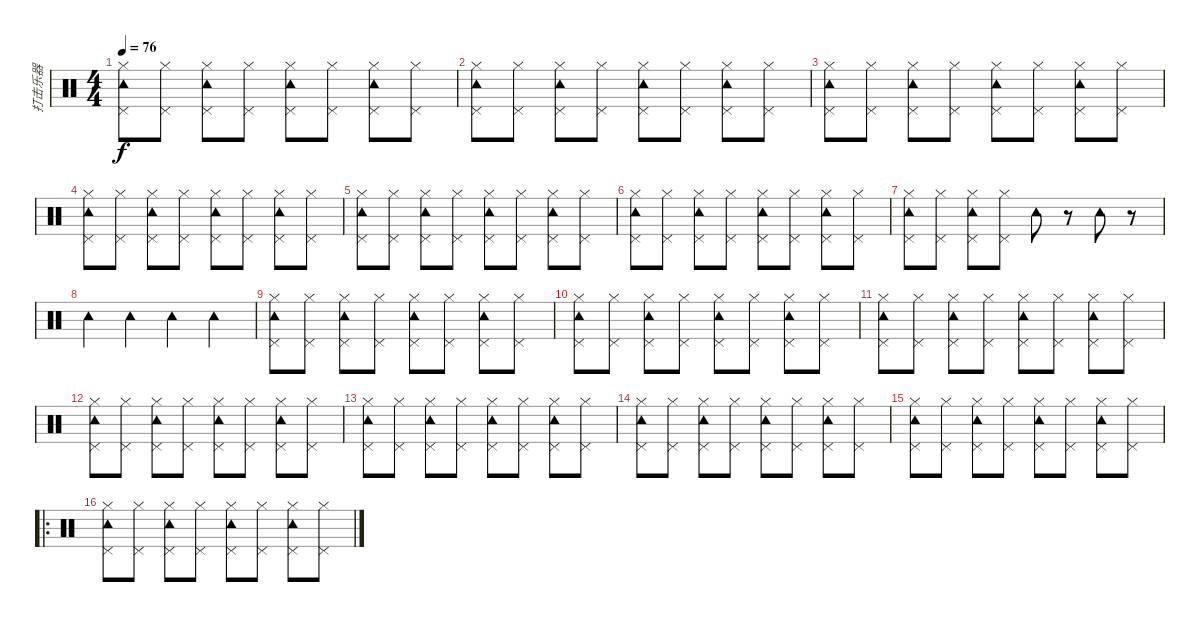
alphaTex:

\track ("打击乐器" "打击乐器") {instrument percussion}
\staff {score}
\articulation defaults
\ts (4 4)
\tempo 76
\clef neutral
\ks c
("Tambourine (hit)" "Pedal Hi-Hat (hit)" "Hi-Hat (closed)").8{dy f} ("Pedal Hi-Hat (hit)" "Hi-Hat (closed)").8 ("Tambourine (hit)" "Pedal Hi-Hat (hit)" "Hi-Hat (closed)").8 ("Pedal Hi-Hat (hit)" "Hi-Hat (closed)").8 ("Tambourine (hit)" "Pedal Hi-Hat (hit)" "Hi-Hat (closed)").8 ("Pedal Hi-Hat (hit)" "Hi-Hat (closed)").8 ("Tambourine (hit)" "Pedal Hi-Hat (hit)" "Hi-Hat (closed)").8 ("Pedal Hi-Hat (hit)" "Hi-Hat (closed)").8 |
("Tambourine (hit)" "Pedal Hi-Hat (hit)" "Hi-Hat (closed)").8 ("Pedal Hi-Hat (hit)" "Hi-Hat (closed)").8 ("Tambourine (hit)" "Pedal Hi-Hat (hit)" "Hi-Hat (closed)").8 ("Pedal Hi-Hat (hit)" "Hi-Hat (closed)").8 ("Tambourine (hit)" "Pedal Hi-Hat (hit)" "Hi-Hat (closed)").8 ("Pedal Hi-Hat (hit)" "Hi-Hat (closed)").8 ("Tambourine (hit)" "Pedal Hi-Hat (hit)" "Hi-Hat (closed)").8 ("Pedal Hi-Hat (hit)" "Hi-Hat (closed)").8 |
("Tambourine (hit)" "Pedal Hi-Hat (hit)" "Hi-Hat (closed)").8 ("Pedal Hi-Hat (hit)" "Hi-Hat (closed)").8 ("Tambourine (hit)" "Pedal Hi-Hat (hit)" "Hi-Hat (closed)").8 ("Pedal Hi-Hat (hit)" "Hi-Hat (closed)").8 ("Tambourine (hit)" "Pedal Hi-Hat (hit)" "Hi-Hat (closed)").8 ("Pedal Hi-Hat (hit)" "Hi-Hat (closed)").8 ("Tambourine (hit)" "Pedal Hi-Hat (hit)" "Hi-Hat (closed)").8 ("Pedal Hi-Hat (hit)" "Hi-Hat (closed)").8 |
("Tambourine (hit)" "Pedal Hi-Hat (hit)" "Hi-Hat (closed)").8 ("Pedal Hi-Hat (hit)" "Hi-Hat (closed)").8 ("Tambourine (hit)" "Pedal Hi-Hat (hit)" "Hi-Hat (closed)").8 ("Pedal Hi-Hat (hit)" "Hi-Hat (closed)").8 ("Tambourine (hit)" "Pedal Hi-Hat (hit)" "Hi-Hat (closed)").8 ("Pedal Hi-Hat (hit)" "Hi-Hat (closed)").8 ("Tambourine (hit)" "Pedal Hi-Hat (hit)" "Hi-Hat (closed)").8 ("Pedal Hi-Hat (hit)" "Hi-Hat (closed)").8 |
("Tambourine (hit)" "Pedal Hi-Hat (hit)" "Hi-Hat (closed)").8 ("Pedal Hi-Hat (hit)" "Hi-Hat (closed)").8 ("Tambourine (hit)" "Pedal Hi-Hat (hit)" "Hi-Hat (closed)").8 ("Pedal Hi-Hat (hit)" "Hi-Hat (closed)").8 ("Tambourine (hit)" "Pedal Hi-Hat (hit)" "Hi-Hat (closed)").8 ("Pedal Hi-Hat (hit)" "Hi-Hat (closed)").8 ("Tambourine (hit)" "Pedal Hi-Hat (hit)" "Hi-Hat (closed)").8 ("Pedal Hi-Hat (hit)" "Hi-Hat (closed)").8 |
("Tambourine (hit)" "Pedal Hi-Hat (hit)" "Hi-Hat (closed)").8 ("Pedal Hi-Hat (hit)" "Hi-Hat (closed)").8 ("Tambourine (hit)" "Pedal Hi-Hat (hit)" "Hi-Hat (closed)").8 ("Pedal Hi-Hat (hit)" "Hi-Hat (closed)").8 ("Tambourine (hit)" "Pedal Hi-Hat (hit)" "Hi-Hat (closed)").8 ("Pedal Hi-Hat (hit)" "Hi-Hat (closed)").8 ("Tambourine (hit)" "Pedal Hi-Hat (hit)" "Hi-Hat (closed)").8 ("Pedal Hi-Hat (hit)" "Hi-Hat (closed)").8 |
("Tambourine (hit)" "Pedal Hi-Hat (hit)" "Hi-Hat (closed)").8 ("Pedal Hi-Hat (hit)" "Hi-Hat (closed)").8 ("Tambourine (hit)" "Pedal Hi-Hat (hit)" "Hi-Hat (closed)").8 ("Pedal Hi-Hat (hit)" "Hi-Hat (closed)").8 "Tambourine (hit)".8 r.8 "Tambourine (hit)".8 r.8 |
"Tambourine (hit)".4 "Tambourine (hit)".4 "Tambourine (hit)".4 "Tambourine (hit)".4 |
("Tambourine (hit)" "Pedal Hi-Hat (hit)" "Hi-Hat (closed)").8 ("Pedal Hi-Hat (hit)" "Hi-Hat (closed)").8 ("Tambourine (hit)" "Pedal Hi-Hat (hit)" "Hi-Hat (closed)").8 ("Pedal Hi-Hat (hit)" "Hi-Hat (closed)").8 ("Tambourine (hit)" "Pedal Hi-Hat (hit)" "Hi-Hat (closed)").8 ("Pedal Hi-Hat (hit)" "Hi-Hat (closed)").8 ("Tambourine (hit)" "Pedal Hi-Hat (hit)" "Hi-Hat (closed)").8 ("Pedal Hi-Hat (hit)" "Hi-Hat (closed)").8 |
("Tambourine (hit)" "Pedal Hi-Hat (hit)" "Hi-Hat (closed)").8 ("Pedal Hi-Hat (hit)" "Hi-Hat (closed)").8 ("Tambourine (hit)" "Pedal Hi-Hat (hit)" "Hi-Hat (closed)").8 ("Pedal Hi-Hat (hit)" "Hi-Hat (closed)").8 ("Tambourine (hit)" "Pedal Hi-Hat (hit)" "Hi-Hat (closed)").8 ("Pedal Hi-Hat (hit)" "Hi-Hat (closed)").8 ("Tambourine (hit)" "Pedal Hi-Hat (hit)" "Hi-Hat (closed)").8 ("Pedal Hi-Hat (hit)" "Hi-Hat (closed)").8 |
("Tambourine (hit)" "Pedal Hi-Hat (hit)" "Hi-Hat (closed)").8 ("Pedal Hi-Hat (hit)" "Hi-Hat (closed)").8 ("Tambourine (hit)" "Pedal Hi-Hat (hit)" "Hi-Hat (closed)").8 ("Pedal Hi-Hat (hit)" "Hi-Hat (closed)").8 ("Tambourine (hit)" "Pedal Hi-Hat (hit)" "Hi-Hat (closed)").8 ("Pedal Hi-Hat (hit)" "Hi-Hat (closed)").8 ("Tambourine (hit)" "Pedal Hi-Hat (hit)" "Hi-Hat (closed)").8 ("Pedal Hi-Hat (hit)" "Hi-Hat (closed)").8 |
("Tambourine (hit)" "Pedal Hi-Hat (hit)" "Hi-Hat (closed)").8 ("Pedal Hi-Hat (hit)" "Hi-Hat (closed)").8 ("Tambourine (hit)" "Pedal Hi-Hat (hit)" "Hi-Hat (closed)").8 ("Pedal Hi-Hat (hit)" "Hi-Hat (closed)").8 ("Tambourine (hit)" "Pedal Hi-Hat (hit)" "Hi-Hat (closed)").8 ("Pedal Hi-Hat (hit)" "Hi-Hat (closed)").8 ("Tambourine (hit)" "Pedal Hi-Hat (hit)" "Hi-Hat (closed)").8 ("Pedal Hi-Hat (hit)" "Hi-Hat (closed)").8 |
("Tambourine (hit)" "Pedal Hi-Hat (hit)" "Hi-Hat (closed)").8 ("Pedal Hi-Hat (hit)" "Hi-Hat (closed)").8 ("Tambourine (hit)" "Pedal Hi-Hat (hit)" "Hi-Hat (closed)").8 ("Pedal Hi-Hat (hit)" "Hi-Hat (closed)").8 ("Tambourine (hit)" "Pedal Hi-Hat (hit)" "Hi-Hat (closed)").8 ("Pedal Hi-Hat (hit)" "Hi-Hat (closed)").8 ("Tambourine (hit)" "Pedal Hi-Hat (hit)" "Hi-Hat (closed)").8 ("Pedal Hi-Hat (hit)" "Hi-Hat (closed)").8 |
("Tambourine (hit)" "Pedal Hi-Hat (hit)" "Hi-Hat (closed)").8 ("Pedal Hi-Hat (hit)" "Hi-Hat (closed)").8 ("Tambourine (hit)" "Pedal Hi-Hat (hit)" "Hi-Hat (closed)").8 ("Pedal Hi-Hat (hit)" "Hi-Hat (closed)").8 ("Tambourine (hit)" "Pedal Hi-Hat (hit)" "Hi-Hat (closed)").8 ("Pedal Hi-Hat (hit)" "Hi-Hat (closed)").8 ("Tambourine (hit)" "Pedal Hi-Hat (hit)" "Hi-Hat (closed)").8 ("Pedal Hi-Hat (hit)" "Hi-Hat (closed)").8 |
("Tambourine (hit)" "Pedal Hi-Hat (hit)" "Hi-Hat (closed)").8 ("Pedal Hi-Hat (hit)" "Hi-Hat (closed)").8 ("Tambourine (hit)" "Pedal Hi-Hat (hit)" "Hi-Hat (closed)").8 ("Pedal Hi-Hat (hit)" "Hi-Hat (closed)").8 ("Tambourine (hit)" "Pedal Hi-Hat (hit)" "Hi-Hat (closed)").8 ("Pedal Hi-Hat (hit)" "Hi-Hat (closed)").8 ("Tambourine (hit)" "Pedal Hi-Hat (hit)" "Hi-Hat (closed)").8 ("Pedal Hi-Hat (hit)" "Hi-Hat (closed)").8 |
\ro
("Tambourine (hit)" "Pedal Hi-Hat (hit)" "Hi-Hat (closed)").8 ("Pedal Hi-Hat (hit)" "Hi-Hat (closed)").8 ("Tambourine (hit)" "Pedal Hi-Hat (hit)" "Hi-Hat (closed)").8 ("Pedal Hi-Hat (hit)" "Hi-Hat (closed)").8 ("Tambourine (hit)" "Pedal Hi-Hat (hit)" "Hi-Hat (closed)").8 ("Pedal Hi-Hat (hit)" "Hi-Hat (closed)").8 ("Tambourine (hit)" "Pedal Hi-Hat (hit)" "Hi-Hat (closed)").8 ("Pedal Hi-Hat (hit)" "Hi-Hat (closed)").8
